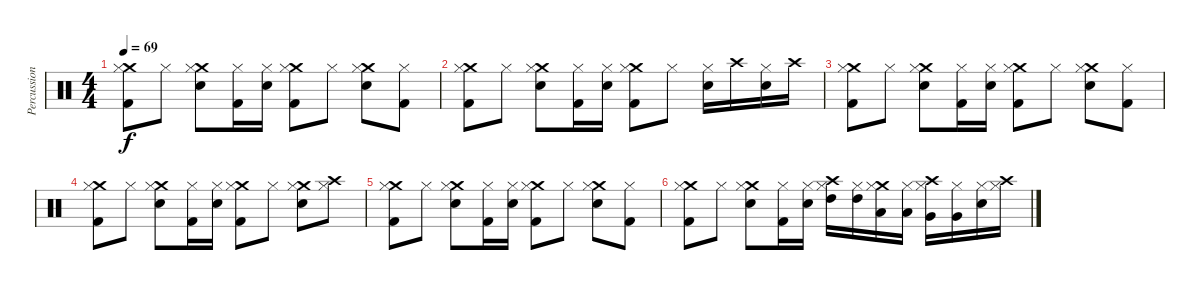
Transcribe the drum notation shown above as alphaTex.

\track ("Percussions" "Percussion") {instrument percussion}
\staff {score}
\articulation defaults
\ts (4 4)
\tempo 69
\clef neutral
\ks c
("Crash medium (hit)" "Kick (hit) 2" "Hi-Hat (closed)").8{dy f} "Hi-Hat (closed)".8 ("Crash medium (hit)" "Electric Snare (hit)" "Hi-Hat (closed)").8 ("Kick (hit) 2" "Hi-Hat (closed)").16 ("Electric Snare (hit)" "Hi-Hat (closed)").16 ("Crash medium (hit)" "Kick (hit) 2" "Hi-Hat (closed)").8 "Hi-Hat (closed)".8 ("Crash medium (hit)" "Electric Snare (hit)" "Hi-Hat (closed)").8 ("Kick (hit) 2" "Hi-Hat (closed)").8 |
("Crash medium (hit)" "Kick (hit) 2" "Hi-Hat (closed)").8 "Hi-Hat (closed)".8 ("Crash medium (hit)" "Electric Snare (hit)" "Hi-Hat (closed)").8 ("Kick (hit) 2" "Hi-Hat (closed)").16 ("Electric Snare (hit)" "Hi-Hat (closed)").16 ("Crash medium (hit)" "Kick (hit) 2" "Hi-Hat (closed)").8 "Hi-Hat (closed)".8 ("Electric Snare (hit)" "Hi-Hat (closed)").16 "Crash high (hit)".16 ("Electric Snare (hit)" "Hi-Hat (closed)").16 "Crash high (hit)".16 |
("Crash medium (hit)" "Kick (hit) 2" "Hi-Hat (closed)").8 "Hi-Hat (closed)".8 ("Crash medium (hit)" "Electric Snare (hit)" "Hi-Hat (closed)").8 ("Kick (hit) 2" "Hi-Hat (closed)").16 ("Electric Snare (hit)" "Hi-Hat (closed)").16 ("Crash medium (hit)" "Kick (hit) 2" "Hi-Hat (closed)").8 "Hi-Hat (closed)".8 ("Crash medium (hit)" "Electric Snare (hit)" "Hi-Hat (closed)").8 ("Kick (hit) 2" "Hi-Hat (closed)").8 |
("Crash medium (hit)" "Kick (hit) 2" "Hi-Hat (closed)").8 "Hi-Hat (closed)".8 ("Crash medium (hit)" "Electric Snare (hit)" "Hi-Hat (closed)").8 ("Kick (hit) 2" "Hi-Hat (closed)").16 ("Electric Snare (hit)" "Hi-Hat (closed)").16 ("Crash medium (hit)" "Kick (hit) 2" "Hi-Hat (closed)").8 "Hi-Hat (closed)".8 ("Crash medium (hit)" "Electric Snare (hit)" "Hi-Hat (closed)").8 ("Crash high (hit)" "Hi-Hat (closed)").8 |
("Crash medium (hit)" "Kick (hit) 2" "Hi-Hat (closed)").8 "Hi-Hat (closed)".8 ("Crash medium (hit)" "Electric Snare (hit)" "Hi-Hat (closed)").8 ("Kick (hit) 2" "Hi-Hat (closed)").16 ("Electric Snare (hit)" "Hi-Hat (closed)").16 ("Crash medium (hit)" "Kick (hit) 2" "Hi-Hat (closed)").8 "Hi-Hat (closed)".8 ("Crash medium (hit)" "Electric Snare (hit)" "Hi-Hat (closed)").8 ("Kick (hit) 2" "Hi-Hat (closed)").8 |
("Crash medium (hit)" "Kick (hit) 2" "Hi-Hat (closed)").8 "Hi-Hat (closed)".8 ("Crash medium (hit)" "Electric Snare (hit)" "Hi-Hat (closed)").8 ("Kick (hit) 2" "Hi-Hat (closed)").16 ("Electric Snare (hit)" "Hi-Hat (closed)").16 ("Crash high (hit)" "High Tom (hit)" "Hi-Hat (closed)").16 ("High Tom (hit)" "Hi-Hat (closed)").16 ("Crash medium (hit)" "Low Tom (hit)" "Hi-Hat (closed)").16 ("Low Tom (hit)" "Hi-Hat (closed)").16 ("Crash high (hit)" "Very Low Tom (hit)" "Hi-Hat (closed)").16 ("Very Low Tom (hit)" "Hi-Hat (closed)").16 ("Electric Snare (hit)" "Hi-Hat (closed)").16 ("Crash high (hit)" "Hi-Hat (closed)").16
